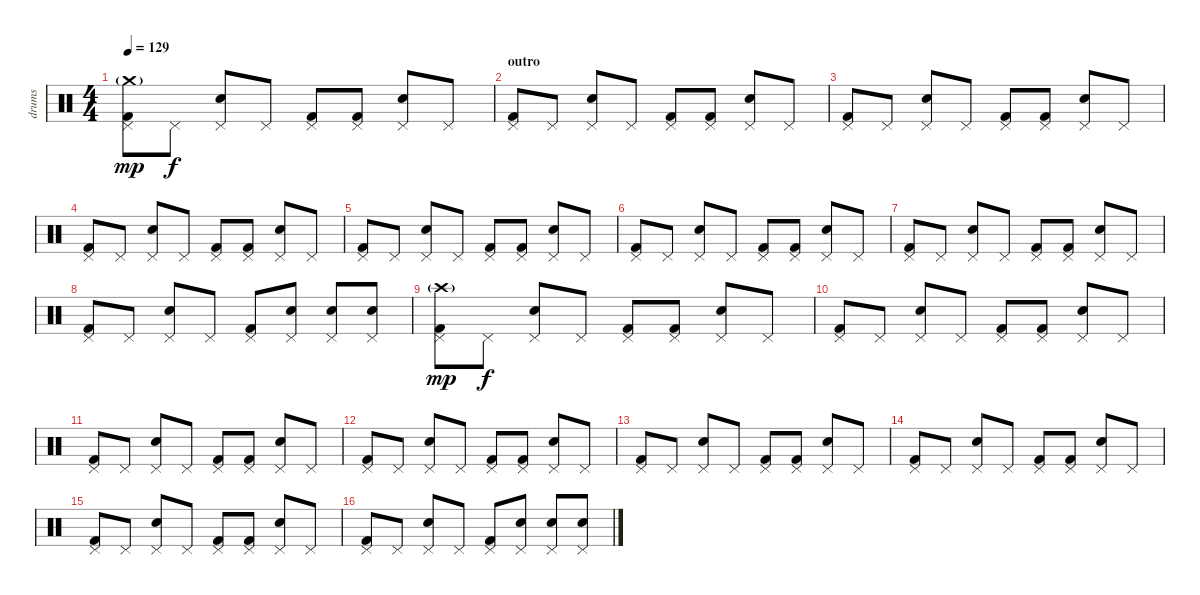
\track ("drums" "drums") {instrument percussion}
\staff {score}
\articulation defaults
\ts (4 4)
\tempo 129
\clef neutral
\ks c
("Kick (hit) 2" "Pedal Hi-Hat (hit)" "Crash medium (hit)"{g}).8{dy mp} "Pedal Hi-Hat (hit)".8{dy f} ("Electric Snare (hit)" "Pedal Hi-Hat (hit)").8 "Pedal Hi-Hat (hit)".8 ("Kick (hit) 2" "Pedal Hi-Hat (hit)").8 ("Kick (hit) 2" "Pedal Hi-Hat (hit)").8 ("Electric Snare (hit)" "Pedal Hi-Hat (hit)").8 "Pedal Hi-Hat (hit)".8 |
\section ("" "outro")
("Kick (hit) 2" "Pedal Hi-Hat (hit)").8 "Pedal Hi-Hat (hit)".8 ("Electric Snare (hit)" "Pedal Hi-Hat (hit)").8 "Pedal Hi-Hat (hit)".8 ("Kick (hit) 2" "Pedal Hi-Hat (hit)").8 ("Kick (hit) 2" "Pedal Hi-Hat (hit)").8 ("Electric Snare (hit)" "Pedal Hi-Hat (hit)").8 "Pedal Hi-Hat (hit)".8 |
("Kick (hit) 2" "Pedal Hi-Hat (hit)").8 "Pedal Hi-Hat (hit)".8 ("Electric Snare (hit)" "Pedal Hi-Hat (hit)").8 "Pedal Hi-Hat (hit)".8 ("Kick (hit) 2" "Pedal Hi-Hat (hit)").8 ("Kick (hit) 2" "Pedal Hi-Hat (hit)").8 ("Electric Snare (hit)" "Pedal Hi-Hat (hit)").8 "Pedal Hi-Hat (hit)".8 |
("Kick (hit) 2" "Pedal Hi-Hat (hit)").8 "Pedal Hi-Hat (hit)".8 ("Electric Snare (hit)" "Pedal Hi-Hat (hit)").8 "Pedal Hi-Hat (hit)".8 ("Kick (hit) 2" "Pedal Hi-Hat (hit)").8 ("Kick (hit) 2" "Pedal Hi-Hat (hit)").8 ("Electric Snare (hit)" "Pedal Hi-Hat (hit)").8 "Pedal Hi-Hat (hit)".8 |
("Kick (hit) 2" "Pedal Hi-Hat (hit)").8 "Pedal Hi-Hat (hit)".8 ("Electric Snare (hit)" "Pedal Hi-Hat (hit)").8 "Pedal Hi-Hat (hit)".8 ("Kick (hit) 2" "Pedal Hi-Hat (hit)").8 ("Kick (hit) 2" "Pedal Hi-Hat (hit)").8 ("Electric Snare (hit)" "Pedal Hi-Hat (hit)").8 "Pedal Hi-Hat (hit)".8 |
("Kick (hit) 2" "Pedal Hi-Hat (hit)").8 "Pedal Hi-Hat (hit)".8 ("Electric Snare (hit)" "Pedal Hi-Hat (hit)").8 "Pedal Hi-Hat (hit)".8 ("Kick (hit) 2" "Pedal Hi-Hat (hit)").8 ("Kick (hit) 2" "Pedal Hi-Hat (hit)").8 ("Electric Snare (hit)" "Pedal Hi-Hat (hit)").8 "Pedal Hi-Hat (hit)".8 |
("Kick (hit) 2" "Pedal Hi-Hat (hit)").8 "Pedal Hi-Hat (hit)".8 ("Electric Snare (hit)" "Pedal Hi-Hat (hit)").8 "Pedal Hi-Hat (hit)".8 ("Kick (hit) 2" "Pedal Hi-Hat (hit)").8 ("Kick (hit) 2" "Pedal Hi-Hat (hit)").8 ("Electric Snare (hit)" "Pedal Hi-Hat (hit)").8 "Pedal Hi-Hat (hit)".8 |
("Kick (hit) 2" "Pedal Hi-Hat (hit)").8 "Pedal Hi-Hat (hit)".8 ("Electric Snare (hit)" "Pedal Hi-Hat (hit)").8 "Pedal Hi-Hat (hit)".8 ("Kick (hit) 2" "Pedal Hi-Hat (hit)").8 ("Electric Snare (hit)" "Pedal Hi-Hat (hit)").8 ("Electric Snare (hit)" "Pedal Hi-Hat (hit)").8 ("Electric Snare (hit)" "Pedal Hi-Hat (hit)").8 |
("Kick (hit) 2" "Pedal Hi-Hat (hit)" "Crash high (hit)"{g}).8{dy mp} "Pedal Hi-Hat (hit)".8{dy f} ("Electric Snare (hit)" "Pedal Hi-Hat (hit)").8 "Pedal Hi-Hat (hit)".8 ("Kick (hit) 2" "Pedal Hi-Hat (hit)").8 ("Kick (hit) 2" "Pedal Hi-Hat (hit)").8 ("Electric Snare (hit)" "Pedal Hi-Hat (hit)").8 "Pedal Hi-Hat (hit)".8 |
("Kick (hit) 2" "Pedal Hi-Hat (hit)").8 "Pedal Hi-Hat (hit)".8 ("Electric Snare (hit)" "Pedal Hi-Hat (hit)").8 "Pedal Hi-Hat (hit)".8 ("Kick (hit) 2" "Pedal Hi-Hat (hit)").8 ("Kick (hit) 2" "Pedal Hi-Hat (hit)").8 ("Electric Snare (hit)" "Pedal Hi-Hat (hit)").8 "Pedal Hi-Hat (hit)".8 |
("Kick (hit) 2" "Pedal Hi-Hat (hit)").8 "Pedal Hi-Hat (hit)".8 ("Electric Snare (hit)" "Pedal Hi-Hat (hit)").8 "Pedal Hi-Hat (hit)".8 ("Kick (hit) 2" "Pedal Hi-Hat (hit)").8 ("Kick (hit) 2" "Pedal Hi-Hat (hit)").8 ("Electric Snare (hit)" "Pedal Hi-Hat (hit)").8 "Pedal Hi-Hat (hit)".8 |
("Kick (hit) 2" "Pedal Hi-Hat (hit)").8 "Pedal Hi-Hat (hit)".8 ("Electric Snare (hit)" "Pedal Hi-Hat (hit)").8 "Pedal Hi-Hat (hit)".8 ("Kick (hit) 2" "Pedal Hi-Hat (hit)").8 ("Kick (hit) 2" "Pedal Hi-Hat (hit)").8 ("Electric Snare (hit)" "Pedal Hi-Hat (hit)").8 "Pedal Hi-Hat (hit)".8 |
("Kick (hit) 2" "Pedal Hi-Hat (hit)").8 "Pedal Hi-Hat (hit)".8 ("Electric Snare (hit)" "Pedal Hi-Hat (hit)").8 "Pedal Hi-Hat (hit)".8 ("Kick (hit) 2" "Pedal Hi-Hat (hit)").8 ("Kick (hit) 2" "Pedal Hi-Hat (hit)").8 ("Electric Snare (hit)" "Pedal Hi-Hat (hit)").8 "Pedal Hi-Hat (hit)".8 |
("Kick (hit) 2" "Pedal Hi-Hat (hit)").8 "Pedal Hi-Hat (hit)".8 ("Electric Snare (hit)" "Pedal Hi-Hat (hit)").8 "Pedal Hi-Hat (hit)".8 ("Kick (hit) 2" "Pedal Hi-Hat (hit)").8 ("Kick (hit) 2" "Pedal Hi-Hat (hit)").8 ("Electric Snare (hit)" "Pedal Hi-Hat (hit)").8 "Pedal Hi-Hat (hit)".8 |
("Kick (hit) 2" "Pedal Hi-Hat (hit)").8 "Pedal Hi-Hat (hit)".8 ("Electric Snare (hit)" "Pedal Hi-Hat (hit)").8 "Pedal Hi-Hat (hit)".8 ("Kick (hit) 2" "Pedal Hi-Hat (hit)").8 ("Kick (hit) 2" "Pedal Hi-Hat (hit)").8 ("Electric Snare (hit)" "Pedal Hi-Hat (hit)").8 "Pedal Hi-Hat (hit)".8 |
("Kick (hit) 2" "Pedal Hi-Hat (hit)").8 "Pedal Hi-Hat (hit)".8 ("Electric Snare (hit)" "Pedal Hi-Hat (hit)").8 "Pedal Hi-Hat (hit)".8 ("Kick (hit) 2" "Pedal Hi-Hat (hit)").8 ("Electric Snare (hit)" "Pedal Hi-Hat (hit)").8 ("Electric Snare (hit)" "Pedal Hi-Hat (hit)").8 ("Electric Snare (hit)" "Pedal Hi-Hat (hit)").8
